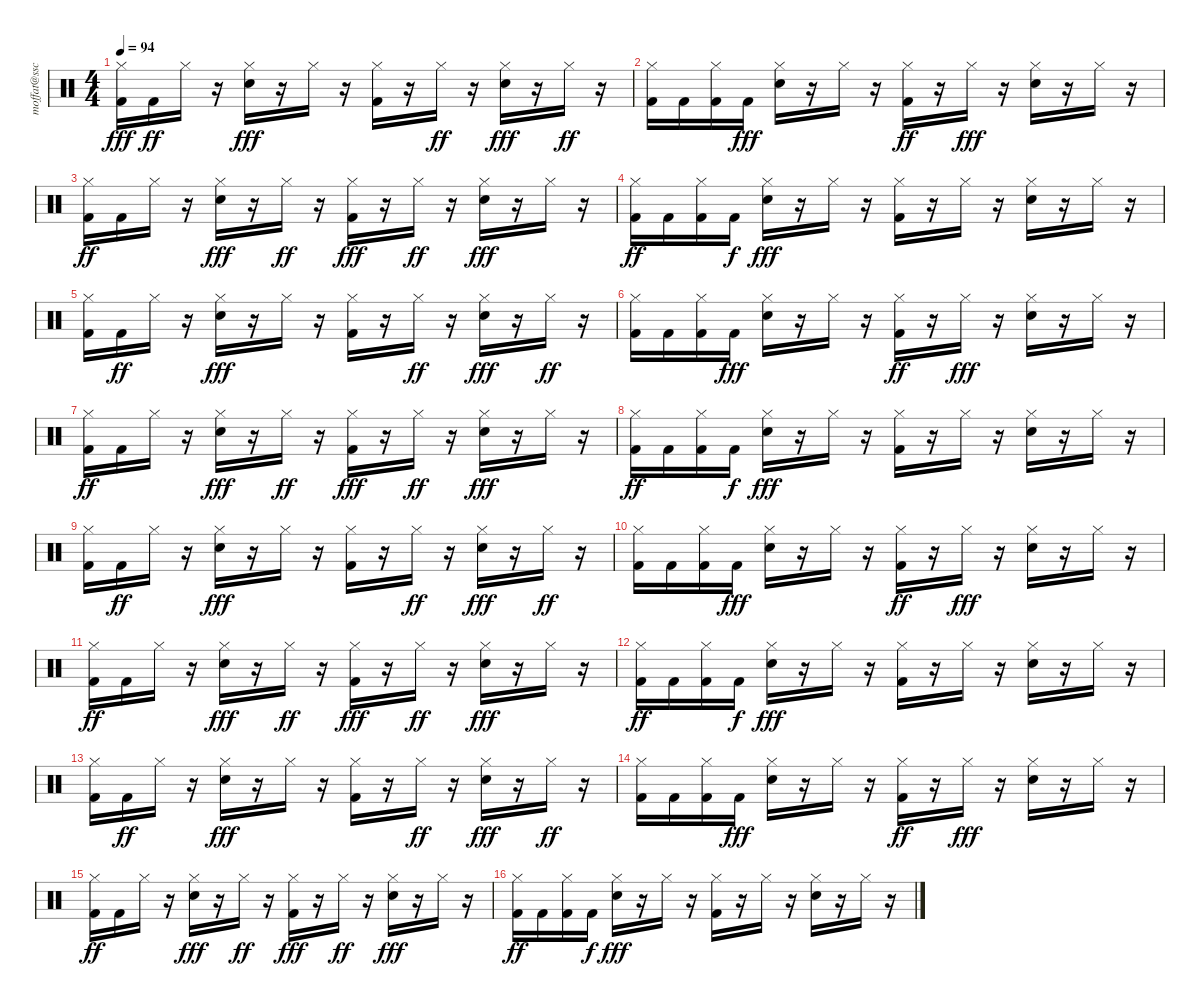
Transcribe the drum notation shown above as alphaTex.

\track ("moffat@sscl." "moffat@ssc") {instrument percussion}
\staff {score}
\articulation defaults
\ts (4 4)
\tempo 94
\clef neutral
\ks c
("Kick (hit) 2" "Hi-Hat (closed)").16{dy fff} "Kick (hit) 2".16{dy ff} "Hi-Hat (closed)".16 r.16 ("Snare (hit) 2" "Hi-Hat (closed)").16{dy fff} r.16 "Hi-Hat (closed)".16 r.16 ("Kick (hit) 2" "Hi-Hat (closed)").16 r.16 "Hi-Hat (closed)".16{dy ff} r.16 ("Snare (hit) 2" "Hi-Hat (closed)").16{dy fff} r.16 "Hi-Hat (closed)".16{dy ff} r.16 |
("Hi-Hat (closed)" "Kick (hit) 2").16 "Kick (hit) 2".16 ("Hi-Hat (closed)" "Kick (hit) 2").16 "Kick (hit) 2".16{dy fff} ("Hi-Hat (closed)" "Snare (hit) 2").16 r.16 "Hi-Hat (closed)".16 r.16 ("Hi-Hat (closed)" "Kick (hit) 2").16{dy ff} r.16 "Hi-Hat (closed)".16{dy fff} r.16 ("Hi-Hat (closed)" "Snare (hit) 2").16 r.16 "Hi-Hat (closed)".16 r.16 |
("Kick (hit) 2" "Hi-Hat (closed)").16{dy ff} "Kick (hit) 2".16 "Hi-Hat (closed)".16 r.16 ("Hi-Hat (closed)" "Snare (hit) 2").16{dy fff} r.16 "Hi-Hat (closed)".16{dy ff} r.16 ("Kick (hit) 2" "Hi-Hat (closed)").16{dy fff} r.16 "Hi-Hat (closed)".16{dy ff} r.16 ("Snare (hit) 2" "Hi-Hat (closed)").16{dy fff} r.16 "Hi-Hat (closed)".16 r.16 |
("Hi-Hat (closed)" "Kick (hit) 2").16{dy ff} "Kick (hit) 2".16 ("Hi-Hat (closed)" "Kick (hit) 2").16 "Kick (hit) 2".16{dy f} ("Hi-Hat (closed)" "Snare (hit) 2").16{dy fff} r.16 "Hi-Hat (closed)".16 r.16 ("Hi-Hat (closed)" "Kick (hit) 2").16 r.16 "Hi-Hat (closed)".16 r.16 ("Snare (hit) 2" "Hi-Hat (closed)").16 r.16 "Hi-Hat (closed)".16 r.16 |
("Kick (hit) 2" "Hi-Hat (closed)").16 "Kick (hit) 2".16{dy ff} "Hi-Hat (closed)".16 r.16 ("Snare (hit) 2" "Hi-Hat (closed)").16{dy fff} r.16 "Hi-Hat (closed)".16 r.16 ("Kick (hit) 2" "Hi-Hat (closed)").16 r.16 "Hi-Hat (closed)".16{dy ff} r.16 ("Snare (hit) 2" "Hi-Hat (closed)").16{dy fff} r.16 "Hi-Hat (closed)".16{dy ff} r.16 |
("Hi-Hat (closed)" "Kick (hit) 2").16 "Kick (hit) 2".16 ("Hi-Hat (closed)" "Kick (hit) 2").16 "Kick (hit) 2".16{dy fff} ("Hi-Hat (closed)" "Snare (hit) 2").16 r.16 "Hi-Hat (closed)".16 r.16 ("Hi-Hat (closed)" "Kick (hit) 2").16{dy ff} r.16 "Hi-Hat (closed)".16{dy fff} r.16 ("Hi-Hat (closed)" "Snare (hit) 2").16 r.16 "Hi-Hat (closed)".16 r.16 |
("Kick (hit) 2" "Hi-Hat (closed)").16{dy ff} "Kick (hit) 2".16 "Hi-Hat (closed)".16 r.16 ("Hi-Hat (closed)" "Snare (hit) 2").16{dy fff} r.16 "Hi-Hat (closed)".16{dy ff} r.16 ("Kick (hit) 2" "Hi-Hat (closed)").16{dy fff} r.16 "Hi-Hat (closed)".16{dy ff} r.16 ("Snare (hit) 2" "Hi-Hat (closed)").16{dy fff} r.16 "Hi-Hat (closed)".16 r.16 |
("Hi-Hat (closed)" "Kick (hit) 2").16{dy ff} "Kick (hit) 2".16 ("Hi-Hat (closed)" "Kick (hit) 2").16 "Kick (hit) 2".16{dy f} ("Hi-Hat (closed)" "Snare (hit) 2").16{dy fff} r.16 "Hi-Hat (closed)".16 r.16 ("Hi-Hat (closed)" "Kick (hit) 2").16 r.16 "Hi-Hat (closed)".16 r.16 ("Snare (hit) 2" "Hi-Hat (closed)").16 r.16 "Hi-Hat (closed)".16 r.16 |
("Kick (hit) 2" "Hi-Hat (closed)").16 "Kick (hit) 2".16{dy ff} "Hi-Hat (closed)".16 r.16 ("Snare (hit) 2" "Hi-Hat (closed)").16{dy fff} r.16 "Hi-Hat (closed)".16 r.16 ("Kick (hit) 2" "Hi-Hat (closed)").16 r.16 "Hi-Hat (closed)".16{dy ff} r.16 ("Snare (hit) 2" "Hi-Hat (closed)").16{dy fff} r.16 "Hi-Hat (closed)".16{dy ff} r.16 |
("Hi-Hat (closed)" "Kick (hit) 2").16 "Kick (hit) 2".16 ("Hi-Hat (closed)" "Kick (hit) 2").16 "Kick (hit) 2".16{dy fff} ("Hi-Hat (closed)" "Snare (hit) 2").16 r.16 "Hi-Hat (closed)".16 r.16 ("Hi-Hat (closed)" "Kick (hit) 2").16{dy ff} r.16 "Hi-Hat (closed)".16{dy fff} r.16 ("Hi-Hat (closed)" "Snare (hit) 2").16 r.16 "Hi-Hat (closed)".16 r.16 |
("Kick (hit) 2" "Hi-Hat (closed)").16{dy ff} "Kick (hit) 2".16 "Hi-Hat (closed)".16 r.16 ("Hi-Hat (closed)" "Snare (hit) 2").16{dy fff} r.16 "Hi-Hat (closed)".16{dy ff} r.16 ("Kick (hit) 2" "Hi-Hat (closed)").16{dy fff} r.16 "Hi-Hat (closed)".16{dy ff} r.16 ("Snare (hit) 2" "Hi-Hat (closed)").16{dy fff} r.16 "Hi-Hat (closed)".16 r.16 |
("Hi-Hat (closed)" "Kick (hit) 2").16{dy ff} "Kick (hit) 2".16 ("Hi-Hat (closed)" "Kick (hit) 2").16 "Kick (hit) 2".16{dy f} ("Hi-Hat (closed)" "Snare (hit) 2").16{dy fff} r.16 "Hi-Hat (closed)".16 r.16 ("Hi-Hat (closed)" "Kick (hit) 2").16 r.16 "Hi-Hat (closed)".16 r.16 ("Snare (hit) 2" "Hi-Hat (closed)").16 r.16 "Hi-Hat (closed)".16 r.16 |
("Kick (hit) 2" "Hi-Hat (closed)").16 "Kick (hit) 2".16{dy ff} "Hi-Hat (closed)".16 r.16 ("Snare (hit) 2" "Hi-Hat (closed)").16{dy fff} r.16 "Hi-Hat (closed)".16 r.16 ("Kick (hit) 2" "Hi-Hat (closed)").16 r.16 "Hi-Hat (closed)".16{dy ff} r.16 ("Snare (hit) 2" "Hi-Hat (closed)").16{dy fff} r.16 "Hi-Hat (closed)".16{dy ff} r.16 |
("Hi-Hat (closed)" "Kick (hit) 2").16 "Kick (hit) 2".16 ("Hi-Hat (closed)" "Kick (hit) 2").16 "Kick (hit) 2".16{dy fff} ("Hi-Hat (closed)" "Snare (hit) 2").16 r.16 "Hi-Hat (closed)".16 r.16 ("Hi-Hat (closed)" "Kick (hit) 2").16{dy ff} r.16 "Hi-Hat (closed)".16{dy fff} r.16 ("Hi-Hat (closed)" "Snare (hit) 2").16 r.16 "Hi-Hat (closed)".16 r.16 |
("Kick (hit) 2" "Hi-Hat (closed)").16{dy ff} "Kick (hit) 2".16 "Hi-Hat (closed)".16 r.16 ("Hi-Hat (closed)" "Snare (hit) 2").16{dy fff} r.16 "Hi-Hat (closed)".16{dy ff} r.16 ("Kick (hit) 2" "Hi-Hat (closed)").16{dy fff} r.16 "Hi-Hat (closed)".16{dy ff} r.16 ("Snare (hit) 2" "Hi-Hat (closed)").16{dy fff} r.16 "Hi-Hat (closed)".16 r.16 |
("Hi-Hat (closed)" "Kick (hit) 2").16{dy ff} "Kick (hit) 2".16 ("Hi-Hat (closed)" "Kick (hit) 2").16 "Kick (hit) 2".16{dy f} ("Hi-Hat (closed)" "Snare (hit) 2").16{dy fff} r.16 "Hi-Hat (closed)".16 r.16 ("Hi-Hat (closed)" "Kick (hit) 2").16 r.16 "Hi-Hat (closed)".16 r.16 ("Snare (hit) 2" "Hi-Hat (closed)").16 r.16 "Hi-Hat (closed)".16 r.16
